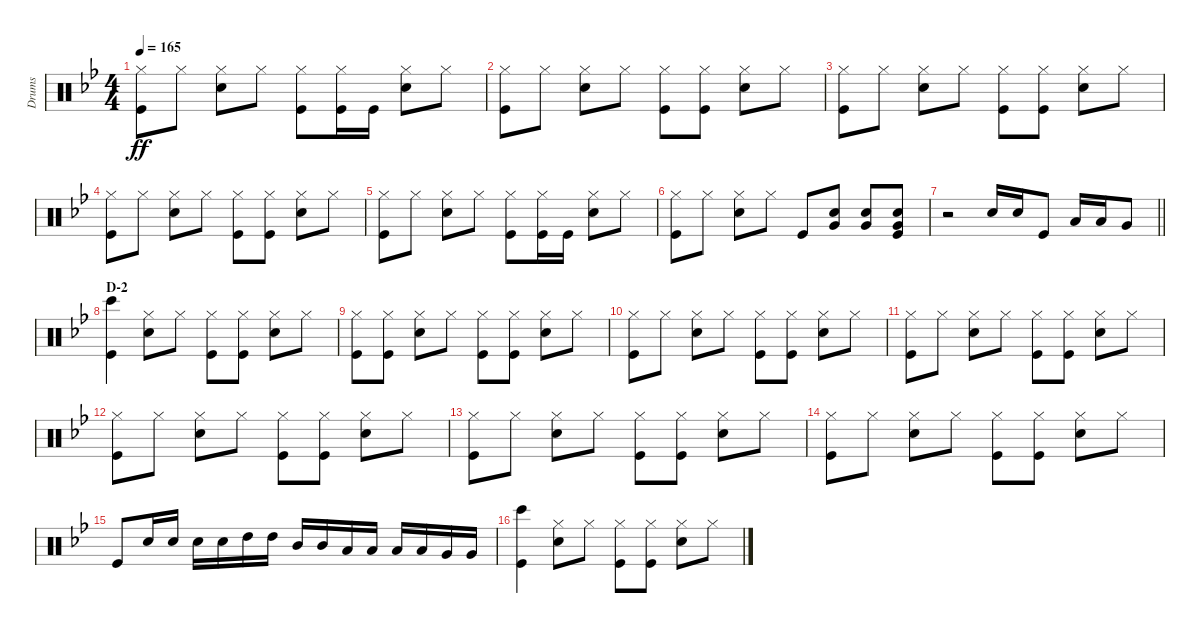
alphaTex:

\track ("Drums" "Drums") {instrument percussion}
\staff {score}
\articulation defaults
\ts (4 4)
\tempo 165
\clef neutral
\ks bb
("Hi-Hat (closed)" "Kick (hit)").8{dy ff} "Hi-Hat (closed)".8 ("Hi-Hat (closed)" "Snare (hit) 2").8 "Hi-Hat (closed)".8 ("Hi-Hat (closed)" "Kick (hit)").8 ("Hi-Hat (closed)" "Kick (hit)").16 "Kick (hit)".16 ("Hi-Hat (closed)" "Snare (hit) 2").8 "Hi-Hat (closed)".8 |
("Hi-Hat (closed)" "Kick (hit)").8 "Hi-Hat (closed)".8 ("Hi-Hat (closed)" "Snare (hit) 2").8 "Hi-Hat (closed)".8 ("Hi-Hat (closed)" "Kick (hit)").8 ("Hi-Hat (closed)" "Kick (hit)").8 ("Hi-Hat (closed)" "Snare (hit) 2").8 "Hi-Hat (closed)".8 |
("Hi-Hat (closed)" "Kick (hit)").8 "Hi-Hat (closed)".8 ("Hi-Hat (closed)" "Snare (hit) 2").8 "Hi-Hat (closed)".8 ("Hi-Hat (closed)" "Kick (hit)").8 ("Hi-Hat (closed)" "Kick (hit)").8 ("Hi-Hat (closed)" "Snare (hit) 2").8 "Hi-Hat (closed)".8 |
("Hi-Hat (closed)" "Kick (hit)").8 "Hi-Hat (closed)".8 ("Hi-Hat (closed)" "Snare (hit) 2").8 "Hi-Hat (closed)".8 ("Hi-Hat (closed)" "Kick (hit)").8 ("Hi-Hat (closed)" "Kick (hit)").8 ("Hi-Hat (closed)" "Snare (hit) 2").8 "Hi-Hat (closed)".8 |
("Hi-Hat (closed)" "Kick (hit)").8 "Hi-Hat (closed)".8 ("Hi-Hat (closed)" "Snare (hit) 2").8 "Hi-Hat (closed)".8 ("Hi-Hat (closed)" "Kick (hit)").8 ("Hi-Hat (closed)" "Kick (hit)").16 "Kick (hit)".16 ("Hi-Hat (closed)" "Snare (hit) 2").8 "Hi-Hat (closed)".8 |
("Hi-Hat (closed)" "Kick (hit)").8 "Hi-Hat (closed)".8 ("Hi-Hat (closed)" "Snare (hit) 2").8 "Hi-Hat (closed)".8 "Kick (hit)".8 ("Snare (hit) 2" "Very Low Tom (hit)").8 ("Snare (hit) 2" "Very Low Tom (hit)").8 ("Kick (hit)" "Snare (hit) 2" "Very Low Tom (hit)").8 |
\barLineRight lightlight
r.2 "Snare (hit) 2".16 "Snare (hit) 2".16 "Kick (hit)".8 "Low Tom (hit)".16 "Low Tom (hit)".16 "Very Low Tom (hit)".8 |
\section ("" "D-2")
("Bongo High (hit)" "Kick (hit)").4 ("Hi-Hat (closed)" "Snare (hit) 2").8 "Hi-Hat (closed)".8 ("Hi-Hat (closed)" "Kick (hit)").8 ("Hi-Hat (closed)" "Kick (hit)").8 ("Hi-Hat (closed)" "Snare (hit) 2").8 "Hi-Hat (closed)".8 |
("Hi-Hat (closed)" "Kick (hit)").8 ("Hi-Hat (closed)" "Kick (hit)").8 ("Hi-Hat (closed)" "Snare (hit) 2").8 "Hi-Hat (closed)".8 ("Hi-Hat (closed)" "Kick (hit)").8 ("Hi-Hat (closed)" "Kick (hit)").8 ("Hi-Hat (closed)" "Snare (hit) 2").8 "Hi-Hat (closed)".8 |
("Hi-Hat (closed)" "Kick (hit)").8 "Hi-Hat (closed)".8 ("Hi-Hat (closed)" "Snare (hit) 2").8 "Hi-Hat (closed)".8 ("Hi-Hat (closed)" "Kick (hit)").8 ("Hi-Hat (closed)" "Kick (hit)").8 ("Hi-Hat (closed)" "Snare (hit) 2").8 "Hi-Hat (closed)".8 |
("Hi-Hat (closed)" "Kick (hit)").8 "Hi-Hat (closed)".8 ("Hi-Hat (closed)" "Snare (hit) 2").8 "Hi-Hat (closed)".8 ("Hi-Hat (closed)" "Kick (hit)").8 ("Hi-Hat (closed)" "Kick (hit)").8 ("Hi-Hat (closed)" "Snare (hit) 2").8 "Hi-Hat (closed)".8 |
("Hi-Hat (closed)" "Kick (hit)").8 "Hi-Hat (closed)".8 ("Hi-Hat (closed)" "Snare (hit) 2").8 "Hi-Hat (closed)".8 ("Hi-Hat (closed)" "Kick (hit)").8 ("Hi-Hat (closed)" "Kick (hit)").8 ("Hi-Hat (closed)" "Snare (hit) 2").8 "Hi-Hat (closed)".8 |
("Hi-Hat (closed)" "Kick (hit)").8 "Hi-Hat (closed)".8 ("Hi-Hat (closed)" "Snare (hit) 2").8 "Hi-Hat (closed)".8 ("Hi-Hat (closed)" "Kick (hit)").8 ("Hi-Hat (closed)" "Kick (hit)").8 ("Hi-Hat (closed)" "Snare (hit) 2").8 "Hi-Hat (closed)".8 |
("Hi-Hat (closed)" "Kick (hit)").8 "Hi-Hat (closed)".8 ("Hi-Hat (closed)" "Snare (hit) 2").8 "Hi-Hat (closed)".8 ("Hi-Hat (closed)" "Kick (hit)").8 ("Hi-Hat (closed)" "Kick (hit)").8 ("Hi-Hat (closed)" "Snare (hit) 2").8 "Hi-Hat (closed)".8 |
"Kick (hit)".8 "Snare (hit) 2".16 "Snare (hit) 2".16 "Snare (hit) 2".16 "Snare (hit) 2".16 "High Tom (hit)".16 "High Tom (hit)".16 "Mid Tom (hit)".16 "Mid Tom (hit)".16 "Low Tom (hit)".16 "Low Tom (hit)".16 "Low Tom (hit)".16 "Low Tom (hit)".16 "Very Low Tom (hit)".16 "Very Low Tom (hit)".16 |
("Bongo High (hit)" "Kick (hit)").4 ("Hi-Hat (closed)" "Snare (hit) 2").8 "Hi-Hat (closed)".8 ("Hi-Hat (closed)" "Kick (hit)").8 ("Hi-Hat (closed)" "Kick (hit)").8 ("Hi-Hat (closed)" "Snare (hit) 2").8 "Hi-Hat (closed)".8
